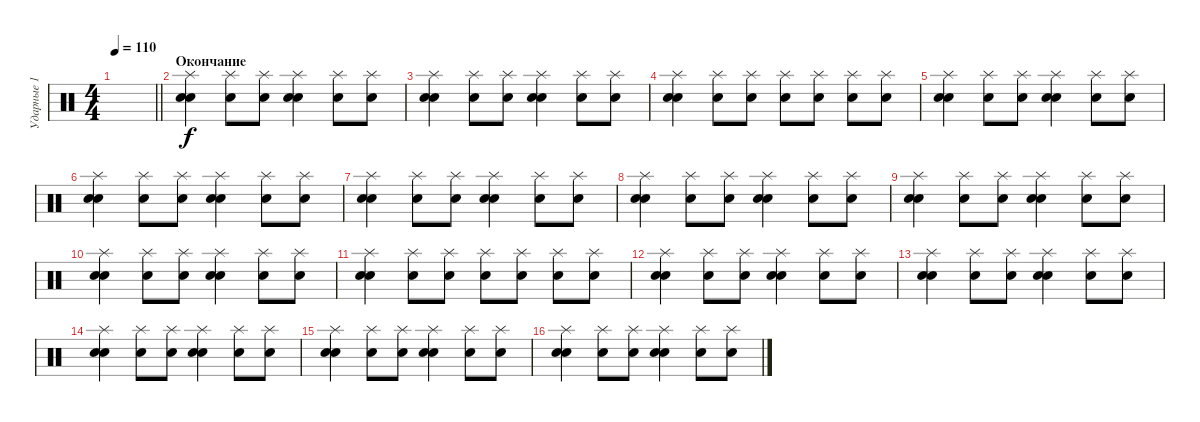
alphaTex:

\track ("Ударные 1" "Ударные 1") {instrument percussion}
\staff {score}
\articulation defaults
\ts (4 4)
\tempo 110
\clef neutral
\barLineRight lightlight
\ks c
|
\section ("" "Окончание")
("Snare (hit) 2" "Electric Snare (hit)" "Splash (hit)").4 ("Electric Snare (hit)" "Splash (hit)").8 ("Electric Snare (hit)" "Splash (hit)").8 ("Snare (hit) 2" "Electric Snare (hit)" "Splash (hit)").4 ("Electric Snare (hit)" "Splash (hit)").8 ("Electric Snare (hit)" "Splash (hit)").8 |
("Snare (hit) 2" "Electric Snare (hit)" "Splash (hit)").4 ("Electric Snare (hit)" "Splash (hit)").8 ("Electric Snare (hit)" "Splash (hit)").8 ("Snare (hit) 2" "Electric Snare (hit)" "Splash (hit)").4 ("Electric Snare (hit)" "Splash (hit)").8 ("Electric Snare (hit)" "Splash (hit)").8 |
("Snare (hit) 2" "Electric Snare (hit)" "Splash (hit)").4 ("Electric Snare (hit)" "Splash (hit)").8 ("Electric Snare (hit)" "Splash (hit)").8 ("Electric Snare (hit)" "Splash (hit)").8 ("Electric Snare (hit)" "Splash (hit)").8 ("Electric Snare (hit)" "Splash (hit)").8 ("Electric Snare (hit)" "Splash (hit)").8 |
("Snare (hit) 2" "Electric Snare (hit)" "Splash (hit)").4 ("Electric Snare (hit)" "Splash (hit)").8 ("Electric Snare (hit)" "Splash (hit)").8 ("Snare (hit) 2" "Electric Snare (hit)" "Splash (hit)").4 ("Electric Snare (hit)" "Splash (hit)").8 ("Electric Snare (hit)" "Splash (hit)").8 |
("Snare (hit) 2" "Electric Snare (hit)" "Splash (hit)").4 ("Electric Snare (hit)" "Splash (hit)").8 ("Electric Snare (hit)" "Splash (hit)").8 ("Snare (hit) 2" "Electric Snare (hit)" "Splash (hit)").4 ("Electric Snare (hit)" "Splash (hit)").8 ("Electric Snare (hit)" "Splash (hit)").8 |
("Snare (hit) 2" "Electric Snare (hit)" "Splash (hit)").4 ("Electric Snare (hit)" "Splash (hit)").8 ("Electric Snare (hit)" "Splash (hit)").8 ("Snare (hit) 2" "Electric Snare (hit)" "Splash (hit)").4 ("Electric Snare (hit)" "Splash (hit)").8 ("Electric Snare (hit)" "Splash (hit)").8 |
("Snare (hit) 2" "Electric Snare (hit)" "Splash (hit)").4 ("Electric Snare (hit)" "Splash (hit)").8 ("Electric Snare (hit)" "Splash (hit)").8 ("Snare (hit) 2" "Electric Snare (hit)" "Splash (hit)").4 ("Electric Snare (hit)" "Splash (hit)").8 ("Electric Snare (hit)" "Splash (hit)").8 |
("Snare (hit) 2" "Electric Snare (hit)" "Splash (hit)").4 ("Electric Snare (hit)" "Splash (hit)").8 ("Electric Snare (hit)" "Splash (hit)").8 ("Snare (hit) 2" "Electric Snare (hit)" "Splash (hit)").4 ("Electric Snare (hit)" "Splash (hit)").8 ("Electric Snare (hit)" "Splash (hit)").8 |
("Snare (hit) 2" "Electric Snare (hit)" "Splash (hit)").4 ("Electric Snare (hit)" "Splash (hit)").8 ("Electric Snare (hit)" "Splash (hit)").8 ("Snare (hit) 2" "Electric Snare (hit)" "Splash (hit)").4 ("Electric Snare (hit)" "Splash (hit)").8 ("Electric Snare (hit)" "Splash (hit)").8 |
("Snare (hit) 2" "Electric Snare (hit)" "Splash (hit)").4 ("Electric Snare (hit)" "Splash (hit)").8 ("Electric Snare (hit)" "Splash (hit)").8 ("Electric Snare (hit)" "Splash (hit)").8 ("Electric Snare (hit)" "Splash (hit)").8 ("Electric Snare (hit)" "Splash (hit)").8 ("Electric Snare (hit)" "Splash (hit)").8 |
("Snare (hit) 2" "Electric Snare (hit)" "Splash (hit)").4 ("Electric Snare (hit)" "Splash (hit)").8 ("Electric Snare (hit)" "Splash (hit)").8 ("Snare (hit) 2" "Electric Snare (hit)" "Splash (hit)").4 ("Electric Snare (hit)" "Splash (hit)").8 ("Electric Snare (hit)" "Splash (hit)").8 |
("Snare (hit) 2" "Electric Snare (hit)" "Splash (hit)").4 ("Electric Snare (hit)" "Splash (hit)").8 ("Electric Snare (hit)" "Splash (hit)").8 ("Snare (hit) 2" "Electric Snare (hit)" "Splash (hit)").4 ("Electric Snare (hit)" "Splash (hit)").8 ("Electric Snare (hit)" "Splash (hit)").8 |
("Snare (hit) 2" "Electric Snare (hit)" "Splash (hit)").4 ("Electric Snare (hit)" "Splash (hit)").8 ("Electric Snare (hit)" "Splash (hit)").8 ("Snare (hit) 2" "Electric Snare (hit)" "Splash (hit)").4 ("Electric Snare (hit)" "Splash (hit)").8 ("Electric Snare (hit)" "Splash (hit)").8 |
("Snare (hit) 2" "Electric Snare (hit)" "Splash (hit)").4 ("Electric Snare (hit)" "Splash (hit)").8 ("Electric Snare (hit)" "Splash (hit)").8 ("Snare (hit) 2" "Electric Snare (hit)" "Splash (hit)").4 ("Electric Snare (hit)" "Splash (hit)").8 ("Electric Snare (hit)" "Splash (hit)").8 |
("Snare (hit) 2" "Electric Snare (hit)" "Splash (hit)").4 ("Electric Snare (hit)" "Splash (hit)").8 ("Electric Snare (hit)" "Splash (hit)").8 ("Snare (hit) 2" "Electric Snare (hit)" "Splash (hit)").4 ("Electric Snare (hit)" "Splash (hit)").8 ("Electric Snare (hit)" "Splash (hit)").8
